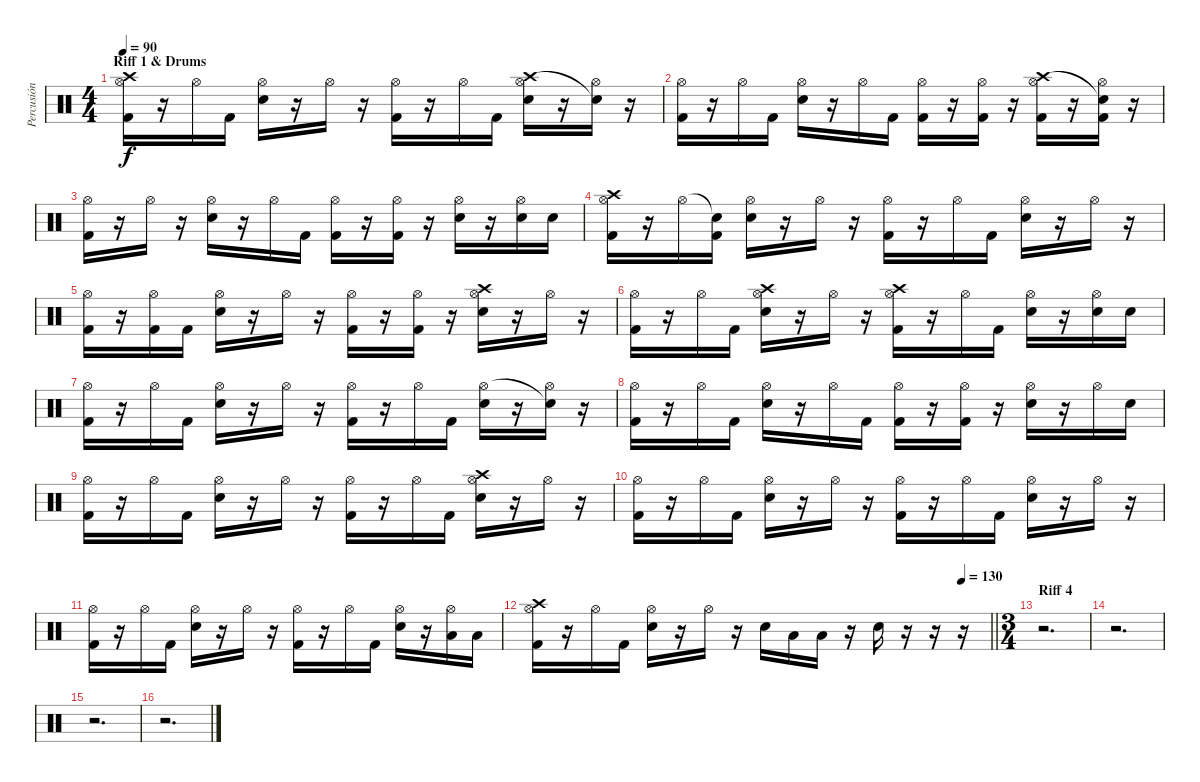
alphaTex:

\track ("Percusión" "Percusión") {instrument percussion}
\staff {score}
\articulation defaults
\ts (4 4)
\section ("" "Riff 1 & Drums")
\tempo 90
\clef neutral
\ks c
("Crash high (hit)" "Hi-Hat (open)" "Kick (hit) 2").16{dy f} r.16 "Hi-Hat (open)".16 "Kick (hit) 2".16 ("Hi-Hat (open)" "Electric Snare (hit)").16 r.16 "Hi-Hat (open)".16 r.16 ("Hi-Hat (open)" "Kick (hit) 2").16 r.16 "Hi-Hat (open)".16 "Kick (hit) 2".16 ("Crash high (hit)" "Hi-Hat (open)" "Electric Snare (hit)").16 r.16 ("Snare (hit)"{t} "Hi-Hat (open)").16 r.16 |
("Hi-Hat (open)" "Kick (hit) 2").16 r.16 "Hi-Hat (open)".16 "Kick (hit) 2".16 ("Hi-Hat (open)" "Electric Snare (hit)").16 r.16 "Hi-Hat (open)".16 "Kick (hit) 2".16 ("Hi-Hat (open)" "Kick (hit) 2").16 r.16 ("Hi-Hat (open)" "Kick (hit) 2").16 r.16 ("Crash high (hit)" "Hi-Hat (open)" "Kick (hit) 2").16 r.16 ("Snare (hit)"{t} "Hi-Hat (open)" "Kick (hit) 2").16 r.16 |
("Hi-Hat (open)" "Kick (hit) 2").16 r.16 "Hi-Hat (open)".16 r.16 ("Hi-Hat (open)" "Electric Snare (hit)").16 r.16 "Hi-Hat (open)".16 "Kick (hit) 2".16 ("Hi-Hat (open)" "Kick (hit) 2").16 r.16 ("Hi-Hat (open)" "Kick (hit) 2").16 r.16 ("Hi-Hat (open)" "Electric Snare (hit)").16 r.16 ("Hi-Hat (open)" "Electric Snare (hit)").16 "Electric Snare (hit)".16 |
("Crash high (hit)" "Hi-Hat (open)" "Kick (hit) 2").16 r.16 "Hi-Hat (open)".16 ("Snare (hit)"{t} "Kick (hit) 2").16 ("Hi-Hat (open)" "Electric Snare (hit)").16 r.16 "Hi-Hat (open)".16 r.16 ("Hi-Hat (open)" "Kick (hit) 2").16 r.16 "Hi-Hat (open)".16 "Kick (hit) 2".16 ("Hi-Hat (open)" "Electric Snare (hit)").16 r.16 "Hi-Hat (open)".16 r.16 |
("Hi-Hat (open)" "Kick (hit) 2").16 r.16 ("Hi-Hat (open)" "Kick (hit) 2").16 "Kick (hit) 2".16 ("Hi-Hat (open)" "Electric Snare (hit)").16 r.16 "Hi-Hat (open)".16 r.16 ("Hi-Hat (open)" "Kick (hit) 2").16 r.16 ("Hi-Hat (open)" "Kick (hit) 2").16 r.16 ("Crash high (hit)" "Hi-Hat (open)" "Electric Snare (hit)").16 r.16 "Hi-Hat (open)".16 r.16 |
("Hi-Hat (open)" "Kick (hit) 2").16 r.16 "Hi-Hat (open)".16 "Kick (hit) 2".16 ("Crash high (hit)" "Hi-Hat (open)" "Electric Snare (hit)").16 r.16 "Hi-Hat (open)".16 r.16 ("Crash high (hit)" "Hi-Hat (open)" "Kick (hit) 2").16 r.16 "Hi-Hat (open)".16 "Kick (hit) 2".16 ("Hi-Hat (open)" "Electric Snare (hit)").16 r.16 ("Hi-Hat (open)" "Electric Snare (hit)").16 "Electric Snare (hit)".16 |
("Hi-Hat (open)" "Kick (hit) 2").16 r.16 "Hi-Hat (open)".16 "Kick (hit) 2".16 ("Hi-Hat (open)" "Electric Snare (hit)").16 r.16 "Hi-Hat (open)".16 r.16 ("Hi-Hat (open)" "Kick (hit) 2").16 r.16 "Hi-Hat (open)".16 "Kick (hit) 2".16 ("Hi-Hat (open)" "Electric Snare (hit)").16 r.16 ("Snare (hit)"{t} "Hi-Hat (open)").16 r.16 |
("Hi-Hat (open)" "Kick (hit) 2").16 r.16 "Hi-Hat (open)".16 "Kick (hit) 2".16 ("Hi-Hat (open)" "Electric Snare (hit)").16 r.16 "Hi-Hat (open)".16 "Kick (hit) 2".16 ("Hi-Hat (open)" "Kick (hit) 2").16 r.16 ("Hi-Hat (open)" "Kick (hit) 2").16 r.16 ("Hi-Hat (open)" "Electric Snare (hit)").16 r.16 "Hi-Hat (open)".16 "Electric Snare (hit)".16 |
("Hi-Hat (open)" "Kick (hit) 2").16 r.16 "Hi-Hat (open)".16 "Kick (hit) 2".16 ("Hi-Hat (open)" "Electric Snare (hit)").16 r.16 "Hi-Hat (open)".16 r.16 ("Hi-Hat (open)" "Kick (hit) 2").16 r.16 "Hi-Hat (open)".16 "Kick (hit) 2".16 ("Crash high (hit)" "Hi-Hat (open)" "Electric Snare (hit)").16 r.16 "Hi-Hat (open)".16 r.16 |
("Hi-Hat (open)" "Kick (hit) 2").16 r.16 "Hi-Hat (open)".16 "Kick (hit) 2".16 ("Hi-Hat (open)" "Electric Snare (hit)").16 r.16 "Hi-Hat (open)".16 r.16 ("Hi-Hat (open)" "Kick (hit) 2").16 r.16 "Hi-Hat (open)".16 "Kick (hit) 2".16 ("Hi-Hat (open)" "Electric Snare (hit)").16 r.16 "Hi-Hat (open)".16 r.16 |
("Hi-Hat (open)" "Kick (hit) 2").16 r.16 "Hi-Hat (open)".16 "Kick (hit) 2".16 ("Hi-Hat (open)" "Electric Snare (hit)").16 r.16 "Hi-Hat (open)".16 r.16 ("Hi-Hat (open)" "Kick (hit) 2").16 r.16 "Hi-Hat (open)".16 "Kick (hit) 2".16 ("Hi-Hat (open)" "Electric Snare (hit)").16 r.16 ("Hi-Hat (open)" "Low Tom (hit)").16 "Low Tom (hit)".16 |
\tempo (130 0.9375)
\barLineRight lightlight
("Crash high (hit)" "Hi-Hat (open)" "Kick (hit) 2").16 r.16 "Hi-Hat (open)".16 "Kick (hit) 2".16 ("Hi-Hat (open)" "Electric Snare (hit)").16 r.16 "Hi-Hat (open)".16 r.16 "Electric Snare (hit)".16 "Low Tom (hit)".16 "Low Tom (hit)".16 r.16 "Electric Snare (hit)".16 r.16 r.16 r.16 |
\ts (3 4)
\section ("" "Riff 4")
r.2{d} |
r.2{d} |
r.2{d} |
r.2{d}
